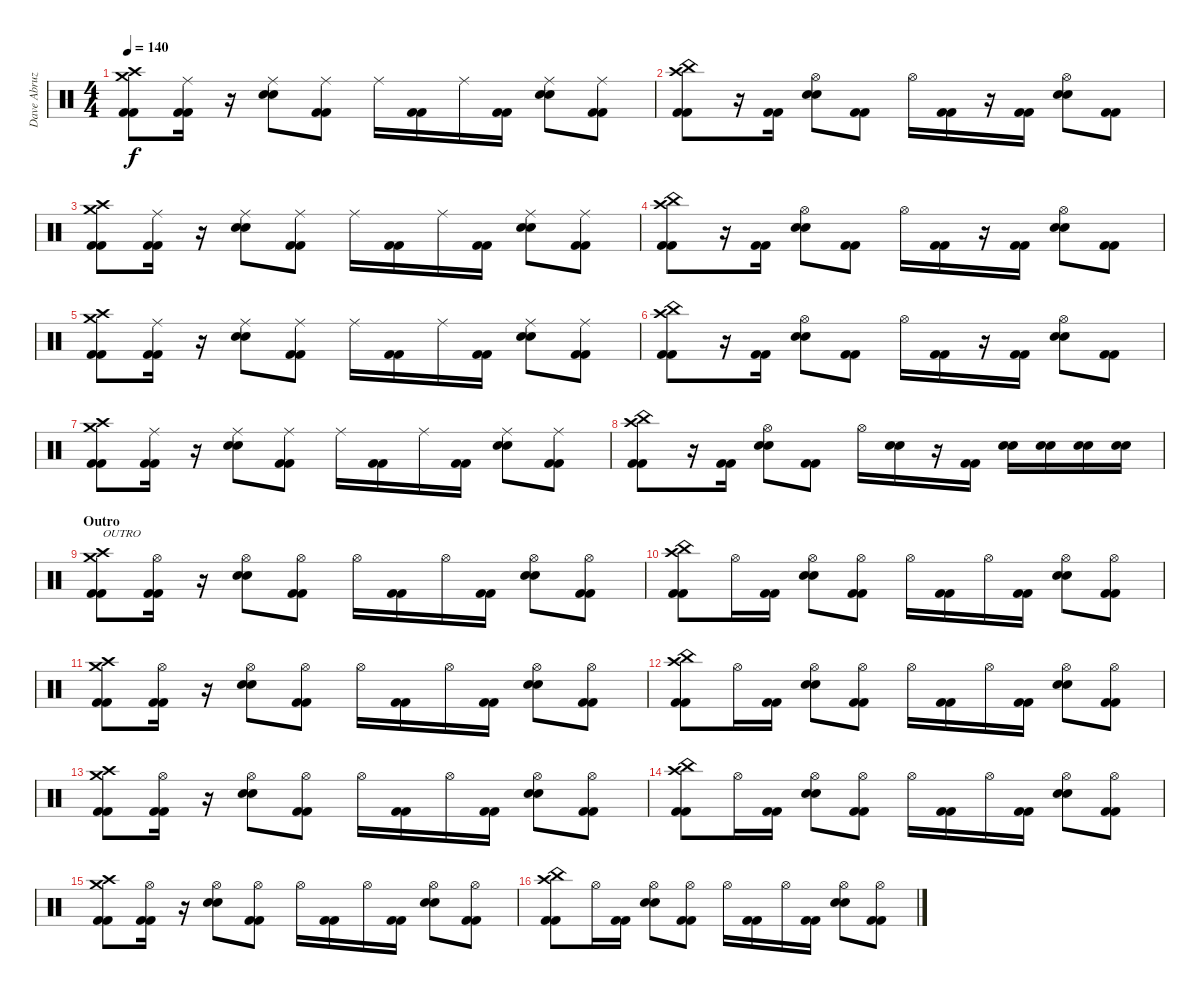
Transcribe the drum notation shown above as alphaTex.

\track ("Dave Abruzzese" "Dave Abruz") {instrument percussion}
\staff {score}
\articulation defaults
\ts (4 4)
\tempo 140
\clef neutral
\ks c
("Crash medium (hit)" "Kick (hit) 2" "Kick (hit) 2" "Crash high (hit)").8{dy f} ("Kick (hit) 2" "Kick (hit) 2" "Ride (middle)").16 r.16 ("Electric Snare (hit)" "Electric Snare (hit)" "Ride (middle)").8 ("Kick (hit) 2" "Kick (hit) 2" "Ride (middle)").8 "Ride (middle)".16 ("Kick (hit) 2" "Kick (hit) 2").16 "Ride (middle)".16 ("Kick (hit) 2" "Kick (hit) 2").16 ("Electric Snare (hit)" "Electric Snare (hit)" "Ride (middle)").8 ("Kick (hit) 2" "Kick (hit) 2" "Ride (middle)").8 |
("China (hit)" "Kick (hit) 2" "Kick (hit) 2" "Crash high (hit)").8 r.16 ("Kick (hit) 2" "Kick (hit) 2").16 ("Electric Snare (hit)" "Electric Snare (hit)" "Hi-Hat (open)").8 ("Kick (hit) 2" "Kick (hit) 2").8 "Hi-Hat (open)".16 ("Kick (hit) 2" "Kick (hit) 2").16 r.16 ("Kick (hit) 2" "Kick (hit) 2").16 ("Electric Snare (hit)" "Electric Snare (hit)" "Hi-Hat (open)").8 ("Kick (hit) 2" "Kick (hit) 2").8 |
("Crash medium (hit)" "Kick (hit) 2" "Kick (hit) 2" "Crash high (hit)").8 ("Kick (hit) 2" "Kick (hit) 2" "Ride (middle)").16 r.16 ("Electric Snare (hit)" "Electric Snare (hit)" "Ride (middle)").8 ("Kick (hit) 2" "Kick (hit) 2" "Ride (middle)").8 "Ride (middle)".16 ("Kick (hit) 2" "Kick (hit) 2").16 "Ride (middle)".16 ("Kick (hit) 2" "Kick (hit) 2").16 ("Electric Snare (hit)" "Electric Snare (hit)" "Ride (middle)").8 ("Kick (hit) 2" "Kick (hit) 2" "Ride (middle)").8 |
("China (hit)" "Kick (hit) 2" "Kick (hit) 2" "Crash high (hit)").8 r.16 ("Kick (hit) 2" "Kick (hit) 2").16 ("Electric Snare (hit)" "Electric Snare (hit)" "Hi-Hat (open)").8 ("Kick (hit) 2" "Kick (hit) 2").8 "Hi-Hat (open)".16 ("Kick (hit) 2" "Kick (hit) 2").16 r.16 ("Kick (hit) 2" "Kick (hit) 2").16 ("Electric Snare (hit)" "Electric Snare (hit)" "Hi-Hat (open)").8 ("Kick (hit) 2" "Kick (hit) 2").8 |
("Crash medium (hit)" "Kick (hit) 2" "Kick (hit) 2" "Crash high (hit)").8 ("Kick (hit) 2" "Kick (hit) 2" "Ride (middle)").16 r.16 ("Electric Snare (hit)" "Electric Snare (hit)" "Ride (middle)").8 ("Kick (hit) 2" "Kick (hit) 2" "Ride (middle)").8 "Ride (middle)".16 ("Kick (hit) 2" "Kick (hit) 2").16 "Ride (middle)".16 ("Kick (hit) 2" "Kick (hit) 2").16 ("Electric Snare (hit)" "Electric Snare (hit)" "Ride (middle)").8 ("Kick (hit) 2" "Kick (hit) 2" "Ride (middle)").8 |
("China (hit)" "Kick (hit) 2" "Kick (hit) 2" "Crash high (hit)").8 r.16 ("Kick (hit) 2" "Kick (hit) 2").16 ("Electric Snare (hit)" "Electric Snare (hit)" "Hi-Hat (open)").8 ("Kick (hit) 2" "Kick (hit) 2").8 "Hi-Hat (open)".16 ("Kick (hit) 2" "Kick (hit) 2").16 r.16 ("Kick (hit) 2" "Kick (hit) 2").16 ("Electric Snare (hit)" "Electric Snare (hit)" "Hi-Hat (open)").8 ("Kick (hit) 2" "Kick (hit) 2").8 |
("Crash medium (hit)" "Kick (hit) 2" "Kick (hit) 2" "Crash high (hit)").8 ("Kick (hit) 2" "Kick (hit) 2" "Ride (middle)").16 r.16 ("Electric Snare (hit)" "Electric Snare (hit)" "Ride (middle)").8 ("Kick (hit) 2" "Kick (hit) 2" "Ride (middle)").8 "Ride (middle)".16 ("Kick (hit) 2" "Kick (hit) 2").16 "Ride (middle)".16 ("Kick (hit) 2" "Kick (hit) 2").16 ("Electric Snare (hit)" "Electric Snare (hit)" "Ride (middle)").8 ("Kick (hit) 2" "Kick (hit) 2" "Ride (middle)").8 |
("China (hit)" "Kick (hit) 2" "Kick (hit) 2" "Crash high (hit)").8 r.16 ("Kick (hit) 2" "Kick (hit) 2").16 ("Electric Snare (hit)" "Electric Snare (hit)" "Hi-Hat (open)").8 ("Kick (hit) 2" "Kick (hit) 2").8 "Hi-Hat (open)".16 ("Electric Snare (hit)" "Electric Snare (hit)").16 r.16 ("Kick (hit) 2" "Kick (hit) 2").16 ("Electric Snare (hit)" "Electric Snare (hit)").16 ("Electric Snare (hit)" "Electric Snare (hit)").16 ("Electric Snare (hit)" "Electric Snare (hit)").16 ("Electric Snare (hit)" "Electric Snare (hit)").16 |
\section ("" "Outro")
("Crash medium (hit)" "Kick (hit) 2" "Kick (hit) 2" "Crash high (hit)").8{txt "OUTRO"} ("Kick (hit) 2" "Kick (hit) 2" "Hi-Hat (open)").16 r.16 ("Electric Snare (hit)" "Electric Snare (hit)" "Hi-Hat (open)").8 ("Kick (hit) 2" "Kick (hit) 2" "Hi-Hat (open)").8 "Hi-Hat (open)".16 ("Kick (hit) 2" "Kick (hit) 2").16 "Hi-Hat (open)".16 ("Kick (hit) 2" "Kick (hit) 2").16 ("Electric Snare (hit)" "Electric Snare (hit)" "Hi-Hat (open)").8 ("Kick (hit) 2" "Kick (hit) 2" "Hi-Hat (open)").8 |
("Kick (hit) 2" "Kick (hit) 2" "Crash high (hit)" "China (hit)").8 "Hi-Hat (open)".16 ("Kick (hit) 2" "Kick (hit) 2").16 ("Electric Snare (hit)" "Electric Snare (hit)" "Hi-Hat (open)").8 ("Kick (hit) 2" "Kick (hit) 2" "Hi-Hat (open)").8 "Hi-Hat (open)".16 ("Kick (hit) 2" "Kick (hit) 2").16 "Hi-Hat (open)".16 ("Kick (hit) 2" "Kick (hit) 2").16 ("Electric Snare (hit)" "Electric Snare (hit)" "Hi-Hat (open)").8 ("Kick (hit) 2" "Kick (hit) 2" "Hi-Hat (open)").8 |
("Crash medium (hit)" "Kick (hit) 2" "Kick (hit) 2" "Crash high (hit)").8 ("Kick (hit) 2" "Kick (hit) 2" "Hi-Hat (open)").16 r.16 ("Electric Snare (hit)" "Electric Snare (hit)" "Hi-Hat (open)").8 ("Kick (hit) 2" "Kick (hit) 2" "Hi-Hat (open)").8 "Hi-Hat (open)".16 ("Kick (hit) 2" "Kick (hit) 2").16 "Hi-Hat (open)".16 ("Kick (hit) 2" "Kick (hit) 2").16 ("Electric Snare (hit)" "Electric Snare (hit)" "Hi-Hat (open)").8 ("Kick (hit) 2" "Kick (hit) 2" "Hi-Hat (open)").8 |
("Kick (hit) 2" "Kick (hit) 2" "Crash high (hit)" "China (hit)").8 "Hi-Hat (open)".16 ("Kick (hit) 2" "Kick (hit) 2").16 ("Electric Snare (hit)" "Electric Snare (hit)" "Hi-Hat (open)").8 ("Kick (hit) 2" "Kick (hit) 2" "Hi-Hat (open)").8 "Hi-Hat (open)".16 ("Kick (hit) 2" "Kick (hit) 2").16 "Hi-Hat (open)".16 ("Kick (hit) 2" "Kick (hit) 2").16 ("Electric Snare (hit)" "Electric Snare (hit)" "Hi-Hat (open)").8 ("Kick (hit) 2" "Kick (hit) 2" "Hi-Hat (open)").8 |
("Crash medium (hit)" "Kick (hit) 2" "Kick (hit) 2" "Crash high (hit)").8 ("Kick (hit) 2" "Kick (hit) 2" "Hi-Hat (open)").16 r.16 ("Electric Snare (hit)" "Electric Snare (hit)" "Hi-Hat (open)").8 ("Kick (hit) 2" "Kick (hit) 2" "Hi-Hat (open)").8 "Hi-Hat (open)".16 ("Kick (hit) 2" "Kick (hit) 2").16 "Hi-Hat (open)".16 ("Kick (hit) 2" "Kick (hit) 2").16 ("Electric Snare (hit)" "Electric Snare (hit)" "Hi-Hat (open)").8 ("Kick (hit) 2" "Kick (hit) 2" "Hi-Hat (open)").8 |
("Kick (hit) 2" "Kick (hit) 2" "Crash high (hit)" "China (hit)").8 "Hi-Hat (open)".16 ("Kick (hit) 2" "Kick (hit) 2").16 ("Electric Snare (hit)" "Electric Snare (hit)" "Hi-Hat (open)").8 ("Kick (hit) 2" "Kick (hit) 2" "Hi-Hat (open)").8 "Hi-Hat (open)".16 ("Kick (hit) 2" "Kick (hit) 2").16 "Hi-Hat (open)".16 ("Kick (hit) 2" "Kick (hit) 2").16 ("Electric Snare (hit)" "Electric Snare (hit)" "Hi-Hat (open)").8 ("Kick (hit) 2" "Kick (hit) 2" "Hi-Hat (open)").8 |
("Crash medium (hit)" "Kick (hit) 2" "Kick (hit) 2" "Crash high (hit)").8 ("Kick (hit) 2" "Kick (hit) 2" "Hi-Hat (open)").16 r.16 ("Electric Snare (hit)" "Electric Snare (hit)" "Hi-Hat (open)").8 ("Kick (hit) 2" "Kick (hit) 2" "Hi-Hat (open)").8 "Hi-Hat (open)".16 ("Kick (hit) 2" "Kick (hit) 2").16 "Hi-Hat (open)".16 ("Kick (hit) 2" "Kick (hit) 2").16 ("Electric Snare (hit)" "Electric Snare (hit)" "Hi-Hat (open)").8 ("Kick (hit) 2" "Kick (hit) 2" "Hi-Hat (open)").8 |
("Kick (hit) 2" "Kick (hit) 2" "Crash high (hit)" "China (hit)").8 "Hi-Hat (open)".16 ("Kick (hit) 2" "Kick (hit) 2").16 ("Electric Snare (hit)" "Electric Snare (hit)" "Hi-Hat (open)").8 ("Kick (hit) 2" "Kick (hit) 2" "Hi-Hat (open)").8 "Hi-Hat (open)".16 ("Kick (hit) 2" "Kick (hit) 2").16 "Hi-Hat (open)".16 ("Kick (hit) 2" "Kick (hit) 2").16 ("Electric Snare (hit)" "Electric Snare (hit)" "Hi-Hat (open)").8 ("Kick (hit) 2" "Kick (hit) 2" "Hi-Hat (open)").8
